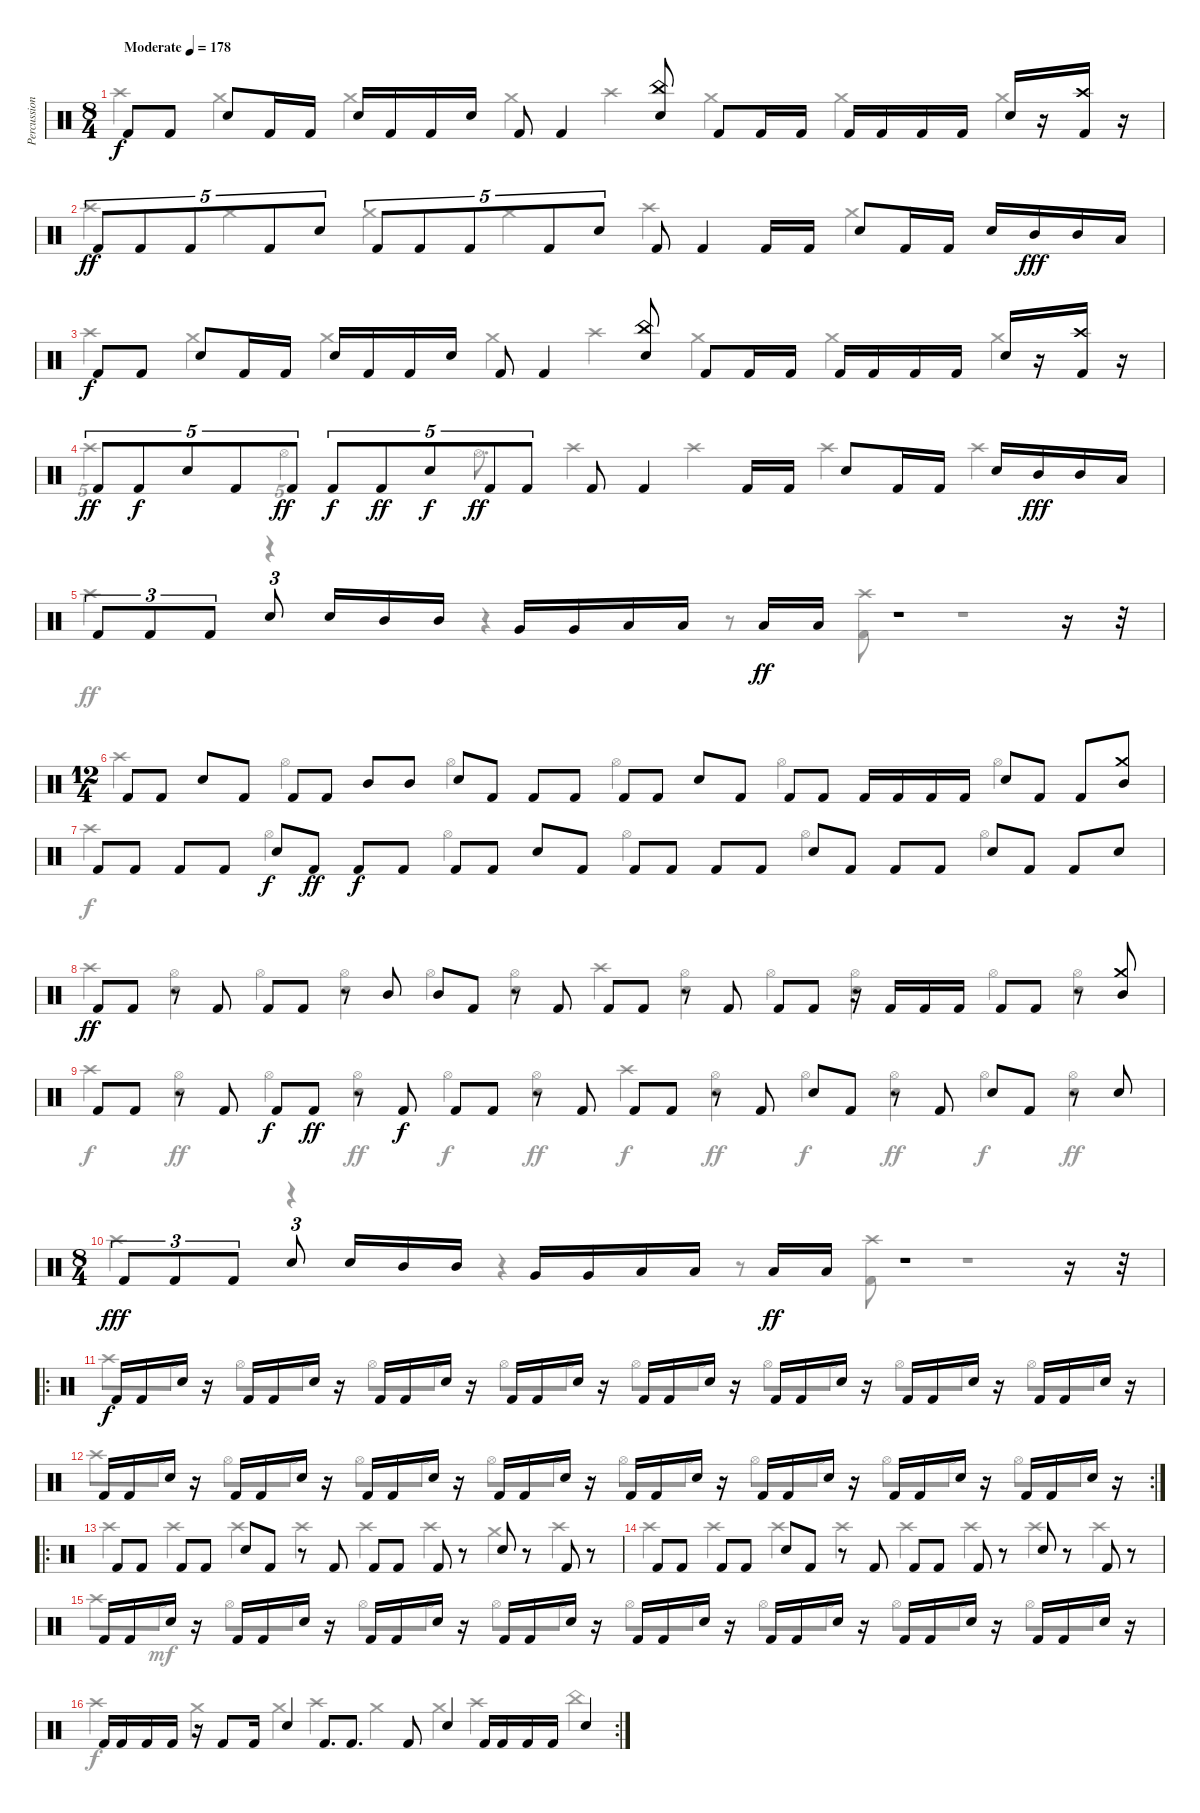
\track ("Percussion" "Percussion") {instrument percussion}
\staff {score}
\articulation defaults
\voice
\ts (8 4)
\tempo (178 "Moderate")
\clef neutral
\ks c "Kick (hit) 2".8{dy f} "Kick (hit) 2".8 "Electric Snare (hit)".8 "Kick (hit) 2".16 "Kick (hit) 2".16 "Electric Snare (hit)".16 "Kick (hit) 2".16 "Kick (hit) 2".16 "Electric Snare (hit)".16 "Kick (hit) 2".8 "Kick (hit) 2".4
("China (hit)" "Electric Snare (hit)").8 "Kick (hit) 2".8 "Kick (hit) 2".16 "Kick (hit) 2".16 "Kick (hit) 2".16 "Kick (hit) 2".16 "Kick (hit) 2".16 "Kick (hit) 2".16 "Electric Snare (hit)".16 r.16 ("Crash high (hit)" "Kick (hit) 2").16 r.16 |
"Kick (hit) 2".8{tu (5 4) dy ff} "Kick (hit) 2".8{tu (5 4)} "Kick (hit) 2".8{tu (5 4)} "Kick (hit) 2".8{tu (5 4)} "Electric Snare (hit)".8{tu (5 4)} "Kick (hit) 2".8{tu (5 4)} "Kick (hit) 2".8{tu (5 4)} "Kick (hit) 2".8{tu (5 4)} "Kick (hit) 2".8{tu (5 4)} "Electric Snare (hit)".8{tu (5 4)} "Kick (hit) 2".8 "Kick (hit) 2".4 "Kick (hit) 2".16 "Kick (hit) 2".16 "Electric Snare (hit)".8 "Kick (hit) 2".16 "Kick (hit) 2".16 "Electric Snare (hit)".16 "Mid Tom (hit)".16{dy fff} "Mid Tom (hit)".16 "Low Floor Tom (hit)".16 |
"Kick (hit) 2".8{dy f} "Kick (hit) 2".8 "Electric Snare (hit)".8 "Kick (hit) 2".16 "Kick (hit) 2".16 "Electric Snare (hit)".16 "Kick (hit) 2".16 "Kick (hit) 2".16 "Electric Snare (hit)".16 "Kick (hit) 2".8 "Kick (hit) 2".4 ("China (hit)" "Electric Snare (hit)").8 "Kick (hit) 2".8 "Kick (hit) 2".16 "Kick (hit) 2".16 "Kick (hit) 2".16 "Kick (hit) 2".16 "Kick (hit) 2".16 "Kick (hit) 2".16 "Electric Snare (hit)".16 r.16 ("Crash high (hit)" "Kick (hit) 2").16 r.16 |
"Kick (hit) 2".8{tu (5 4) dy ff} "Kick (hit) 2".8{tu (5 4) dy f} "Electric Snare (hit)".8{tu (5 4)} "Kick (hit) 2".8{tu (5 4)} "Kick (hit) 2".8{tu (5 4) dy ff} "Kick (hit) 2".8{tu (5 4) dy f} "Kick (hit) 2".8{tu (5 4) dy ff} "Electric Snare (hit)".8{tu (5 4) dy f} "Kick (hit) 2".8{tu (5 4) dy ff} "Kick (hit) 2".8{tu (5 4)} "Kick (hit) 2".8 "Kick (hit) 2".4 "Kick (hit) 2".16 "Kick (hit) 2".16 "Electric Snare (hit)".8 "Kick (hit) 2".16 "Kick (hit) 2".16 "Electric Snare (hit)".16 "Mid Tom (hit)".16{dy fff} "Mid Tom (hit)".16 "Low Floor Tom (hit)".16 |
"Kick (hit) 2".8{tu (3 2)} "Kick (hit) 2".8{tu (3 2)} "Kick (hit) 2".8{tu (3 2)} "Electric Snare (hit)".8{tu (3 2)} "Electric Snare (hit)".16 "Mid Tom (hit)".16 "Mid Tom (hit)".16 "Very Low Tom (hit)".16 "Very Low Tom (hit)".16 "Low Floor Tom (hit)".16 "Low Floor Tom (hit)".16 "Low Floor Tom (hit)".16{dy ff} "Low Floor Tom (hit)".16 r.1 r.16 r.32 |
\ts (12 4)
"Kick (hit) 2".8 "Kick (hit) 2".8 "Electric Snare (hit)".8 "Kick (hit) 2".8 "Kick (hit) 2".8 "Kick (hit) 2".8 "Mid Tom (hit)".8 "Mid Tom (hit)".8 "Electric Snare (hit)".8 "Kick (hit) 2".8 "Kick (hit) 2".8 "Kick (hit) 2".8 "Kick (hit) 2".8 "Kick (hit) 2".8 "Electric Snare (hit)".8 "Kick (hit) 2".8 "Kick (hit) 2".8 "Kick (hit) 2".8 "Kick (hit) 2".16 "Kick (hit) 2".16 "Kick (hit) 2".16 "Kick (hit) 2".16 "Electric Snare (hit)".8 "Kick (hit) 2".8 "Kick (hit) 2".8 ("Crash medium (hit)" "Mid Tom (hit)").8 |
"Kick (hit) 2".8 "Kick (hit) 2".8 "Kick (hit) 2".8 "Kick (hit) 2".8 "Electric Snare (hit)".8{dy f} "Kick (hit) 2".8{dy ff} "Kick (hit) 2".8{dy f} "Kick (hit) 2".8 "Kick (hit) 2".8 "Kick (hit) 2".8 "Electric Snare (hit)".8 "Kick (hit) 2".8 "Kick (hit) 2".8 "Kick (hit) 2".8 "Kick (hit) 2".8 "Kick (hit) 2".8 "Electric Snare (hit)".8 "Kick (hit) 2".8 "Kick (hit) 2".8 "Kick (hit) 2".8 "Electric Snare (hit)".8 "Kick (hit) 2".8 "Kick (hit) 2".8 "Electric Snare (hit)".8 |
"Kick (hit) 2".8{dy ff} "Kick (hit) 2".8 r.8 "Kick (hit) 2".8 "Kick (hit) 2".8 "Kick (hit) 2".8 r.8 "Mid Tom (hit)".8 "Mid Tom (hit)".8 "Kick (hit) 2".8 r.8 "Kick (hit) 2".8 "Kick (hit) 2".8 "Kick (hit) 2".8 r.8 "Kick (hit) 2".8 "Kick (hit) 2".8 "Kick (hit) 2".8 r.16 "Kick (hit) 2".16 "Kick (hit) 2".16 "Kick (hit) 2".16 "Kick (hit) 2".8 "Kick (hit) 2".8 r.8 ("Crash medium (hit)" "Mid Tom (hit)").8 |
"Kick (hit) 2".8 "Kick (hit) 2".8 r.8 "Kick (hit) 2".8 "Kick (hit) 2".8{dy f} "Kick (hit) 2".8{dy ff} r.8 "Kick (hit) 2".8{dy f} "Kick (hit) 2".8 "Kick (hit) 2".8 r.8 "Kick (hit) 2".8 "Kick (hit) 2".8 "Kick (hit) 2".8 r.8 "Kick (hit) 2".8 "Electric Snare (hit)".8 "Kick (hit) 2".8 r.8 "Kick (hit) 2".8 "Electric Snare (hit)".8 "Kick (hit) 2".8 r.8 "Electric Snare (hit)".8 |
\ts (8 4)
"Kick (hit) 2".8{tu (3 2) dy fff} "Kick (hit) 2".8{tu (3 2)} "Kick (hit) 2".8{tu (3 2)} "Electric Snare (hit)".8{tu (3 2)} "Electric Snare (hit)".16 "Mid Tom (hit)".16 "Mid Tom (hit)".16 "Very Low Tom (hit)".16 "Very Low Tom (hit)".16 "Low Floor Tom (hit)".16 "Low Floor Tom (hit)".16 "Low Floor Tom (hit)".16{dy ff} "Low Floor Tom (hit)".16 r.1 r.16 r.32 |
\ro "Kick (hit) 2".16{dy f} "Kick (hit) 2".16 "Electric Snare (hit)".16
r.16 "Kick (hit) 2".16 "Kick (hit) 2".16 "Electric Snare (hit)".16 r.16 "Kick (hit) 2".16 "Kick (hit) 2".16 "Electric Snare (hit)".16 r.16 "Kick (hit) 2".16 "Kick (hit) 2".16 "Electric Snare (hit)".16 r.16 "Kick (hit) 2".16 "Kick (hit) 2".16 "Electric Snare (hit)".16 r.16 "Kick (hit) 2".16 "Kick (hit) 2".16 "Electric Snare (hit)".16 r.16 "Kick (hit) 2".16 "Kick (hit) 2".16 "Electric Snare (hit)".16 r.16 "Kick (hit) 2".16 "Kick (hit) 2".16 "Electric Snare (hit)".16 r.16 |
\rc 2 "Kick (hit) 2".16 "Kick (hit) 2".16 "Electric Snare (hit)".16
r.16 "Kick (hit) 2".16 "Kick (hit) 2".16 "Electric Snare (hit)".16 r.16 "Kick (hit) 2".16 "Kick (hit) 2".16 "Electric Snare (hit)".16 r.16 "Kick (hit) 2".16 "Kick (hit) 2".16 "Electric Snare (hit)".16 r.16 "Kick (hit) 2".16 "Kick (hit) 2".16 "Electric Snare (hit)".16 r.16 "Kick (hit) 2".16 "Kick (hit) 2".16 "Electric Snare (hit)".16 r.16 "Kick (hit) 2".16 "Kick (hit) 2".16 "Electric Snare (hit)".16 r.16 "Kick (hit) 2".16 "Kick (hit) 2".16 "Electric Snare (hit)".16 r.16 |
\ro "Kick (hit) 2".8 "Kick (hit) 2".8 "Kick (hit) 2".8 "Kick (hit) 2".8 "Electric Snare (hit)".8 "Kick (hit) 2".8
r.8 "Kick (hit) 2".8 "Kick (hit) 2".8 "Kick (hit) 2".8 "Kick (hit) 2".8 r.8 "Electric Snare (hit)".8 r.8 "Kick (hit) 2".8 r.8 |
"Kick (hit) 2".8 "Kick (hit) 2".8 "Kick (hit) 2".8 "Kick (hit) 2".8 "Electric Snare (hit)".8 "Kick (hit) 2".8 r.8 "Kick (hit) 2".8 "Kick (hit) 2".8 "Kick (hit) 2".8 "Kick (hit) 2".8 r.8 "Electric Snare (hit)".8 r.8 "Kick (hit) 2".8 r.8 |
"Kick (hit) 2".16 "Kick (hit) 2".16 "Electric Snare (hit)".16 r.16 "Kick (hit) 2".16 "Kick (hit) 2".16 "Electric Snare (hit)".16 r.16 "Kick (hit) 2".16 "Kick (hit) 2".16 "Electric Snare (hit)".16 r.16 "Kick (hit) 2".16 "Kick (hit) 2".16 "Electric Snare (hit)".16 r.16 "Kick (hit) 2".16 "Kick (hit) 2".16 "Electric Snare (hit)".16 r.16 "Kick (hit) 2".16 "Kick (hit) 2".16 "Electric Snare (hit)".16 r.16 "Kick (hit) 2".16 "Kick (hit) 2".16 "Electric Snare (hit)".16 r.16 "Kick (hit) 2".16 "Kick (hit) 2".16 "Electric Snare (hit)".16 r.16 |
\rc 2 "Kick (hit) 2".16 "Kick (hit) 2".16 "Kick (hit) 2".16 "Kick (hit) 2".16
r.16 "Kick (hit) 2".8 "Kick (hit) 2".16 "Electric Snare (hit)".4 "Kick (hit) 2".8{d} "Kick (hit) 2".8{d} "Kick (hit) 2".8 "Electric Snare (hit)".4 "Kick (hit) 2".16 "Kick (hit) 2".16 "Kick (hit) 2".16 "Kick (hit) 2".16 "Electric Snare (hit)".4
\voice
\clef neutral
\ottava regular
\simile none
\ks c "Crash high (hit)".4{dy f} "Crash medium (hit)".4 "Crash medium (hit)".4 "Crash medium (hit)".4 "Crash high (hit)".4 "Crash medium (hit)".4 "Crash medium (hit)".4 "Crash medium (hit)".4
|
"Crash high (hit)".4 "Crash medium (hit)".4 "Crash medium (hit)".4 "Crash medium (hit)".4 "Crash high (hit)".2 "Crash medium (hit)".2 |
"Crash high (hit)".4 "Crash medium (hit)".4 "Crash medium (hit)".4 "Crash medium (hit)".4 "Crash high (hit)".4 "Crash medium (hit)".4 "Crash medium (hit)".4 "Crash medium (hit)".4 |
"Crash high (hit)".2{tu (5 4)} "Hi-Hat (open)".2{tu (5 4)} "Hi-Hat (open)".8{d} "Crash high (hit)".4 "Crash high (hit)".4 "Crash high (hit)".4 "Crash high (hit)".4 |
"Crash high (hit)".4{dy ff} r.4 r.4 r.8 ("Crash high (hit)" "Kick (hit) 2").8 r.1 |
"Crash high (hit)".2 "Hi-Hat (open)".2 "Hi-Hat (open)".2 "Hi-Hat (open)".2 "Hi-Hat (open)".2 "Hi-Hat (open)".2 |
"Crash high (hit)".2{dy f} "Hi-Hat (open)".2 "Hi-Hat (open)".2 "Hi-Hat (open)".2 "Hi-Hat (open)".2 "Hi-Hat (open)".2 |
"Crash high (hit)".4{dy ff} ("Hi-Hat (open)" "Electric Snare (hit)").4 "Hi-Hat (open)".4 ("Hi-Hat (open)" "Electric Snare (hit)").4 "Hi-Hat (open)".4 ("Hi-Hat (open)" "Electric Snare (hit)").4 "Crash high (hit)".4 ("Hi-Hat (open)" "Electric Snare (hit)").4 "Hi-Hat (open)".4 ("Hi-Hat (open)" "Electric Snare (hit)").4 "Hi-Hat (open)".4 ("Hi-Hat (open)" "Electric Snare (hit)").4 |
"Crash high (hit)".4{dy f} ("Hi-Hat (open)" "Electric Snare (hit)").4{dy ff} "Hi-Hat (open)".4{dy f} ("Hi-Hat (open)" "Electric Snare (hit)").4{dy ff} "Hi-Hat (open)".4{dy f} ("Hi-Hat (open)" "Electric Snare (hit)").4{dy ff} "Crash high (hit)".4{dy f} ("Hi-Hat (open)" "Electric Snare (hit)").4{dy ff} "Hi-Hat (open)".4{dy f} ("Hi-Hat (open)" "Electric Snare (hit)").4{dy ff} "Hi-Hat (open)".4{dy f} ("Hi-Hat (open)" "Electric Snare (hit)").4{dy ff} |
"Crash high (hit)".4 r.4 r.4 r.8 ("Crash high (hit)" "Kick (hit) 2").8 r.1 |
"Crash high (hit)".8{dy f} "Hi-Hat (open)".8 "Hi-Hat (open)".8 "Hi-Hat (open)".8 "Hi-Hat (open)".8 "Hi-Hat (open)".8 "Hi-Hat (open)".8 "Hi-Hat (open)".8 "Hi-Hat (open)".8 "Hi-Hat (open)".8 "Hi-Hat (open)".8 "Hi-Hat (open)".8 "Hi-Hat (open)".8 "Hi-Hat (open)".8 "Hi-Hat (open)".8 "Hi-Hat (open)".8 |
"Crash high (hit)".8 "Hi-Hat (open)".8 "Hi-Hat (open)".8 "Hi-Hat (open)".8 "Hi-Hat (open)".8 "Hi-Hat (open)".8 "Hi-Hat (open)".8 "Hi-Hat (open)".8 "Hi-Hat (open)".8 "Hi-Hat (open)".8 "Hi-Hat (open)".8 "Hi-Hat (open)".8 "Hi-Hat (open)".8 "Hi-Hat (open)".8 "Hi-Hat (open)".8 "Hi-Hat (open)".8 |
"Crash high (hit)".4 "Crash high (hit)".4 "Crash high (hit)".4 "Crash high (hit)".4 "Crash high (hit)".4 "Crash high (hit)".4 "Crash medium (hit)".4 "Crash high (hit)".4 |
"Crash high (hit)".4 "Crash high (hit)".4 "Crash high (hit)".4 "Crash high (hit)".4 "Crash high (hit)".4 "Crash high (hit)".4 "Crash high (hit)".4 "Crash high (hit)".4 |
"Crash high (hit)".8 "Hi-Hat (open)".8{dy mf} "Hi-Hat (open)".8 "Hi-Hat (open)".8 "Hi-Hat (open)".8 "Hi-Hat (open)".8 "Hi-Hat (open)".8 "Hi-Hat (open)".8 "Hi-Hat (open)".8 "Hi-Hat (open)".8 "Hi-Hat (open)".8 "Hi-Hat (open)".8 "Hi-Hat (open)".8 "Hi-Hat (open)".8 "Hi-Hat (open)".8 "Hi-Hat (open)".8 |
"Crash high (hit)".4{dy f} "Crash medium (hit)".4 "Crash medium (hit)".4 "Crash high (hit)".4 "Crash medium (hit)".4 "Crash medium (hit)".4 "Crash high (hit)".4 "China (hit)".4
